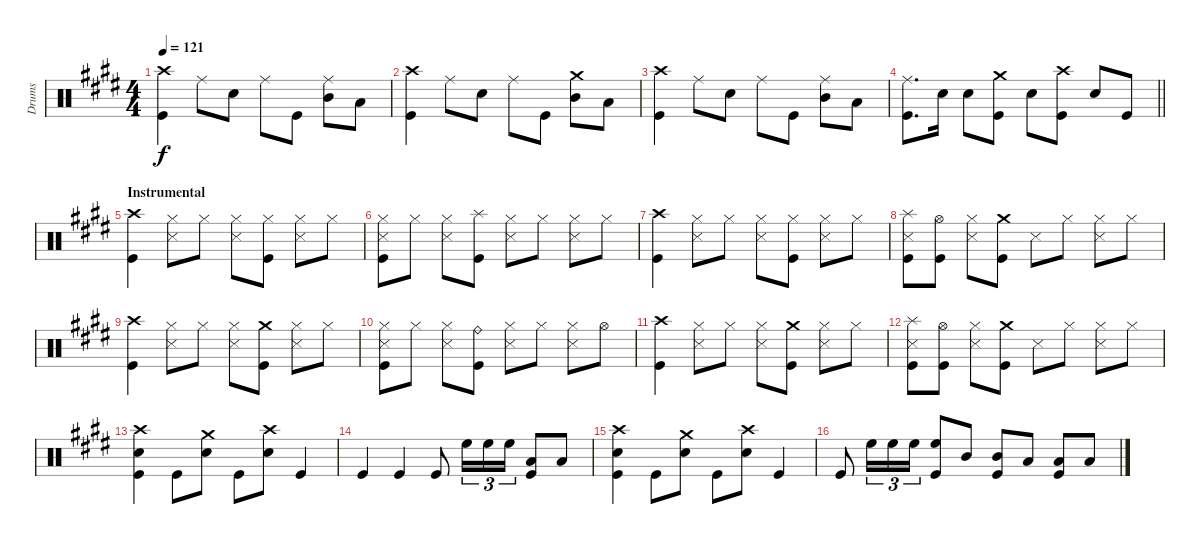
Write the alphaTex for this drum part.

\track ("Drums" "Drums") {instrument percussion}
\staff {score}
\articulation defaults
\ts (4 4)
\tempo 121
\clef neutral
\ks e
("Crash high (hit)" "Kick (hit)").4{dy f} "Ride (middle)".8 "Snare (hit) 2".8 "Ride (middle)".8 "Kick (hit)".8 ("Ride (middle)" "Mid Tom (hit)").8 "Low Floor Tom (hit)".8 |
("Crash high (hit)" "Kick (hit)").4 "Ride (middle)".8 "Snare (hit) 2".8 "Ride (middle)".8 "Kick (hit)".8 ("Crash medium (hit)" "Mid Tom (hit)").8 "Low Floor Tom (hit)".8 |
("Crash high (hit)" "Kick (hit)").4 "Ride (middle)".8 "Snare (hit) 2".8 "Ride (middle)".8 "Kick (hit)".8 ("Ride (middle)" "Mid Tom (hit)").8 "Low Floor Tom (hit)".8 |
\barLineRight lightlight
("Ride (middle)" "Kick (hit)").8{d} "Snare (hit) 2".16 "Snare (hit) 2".8 ("Crash medium (hit)" "Kick (hit)").8 "Snare (hit) 2".8 ("Crash high (hit)" "Kick (hit)").8 "Snare (hit) 2".8 "Kick (hit)".8 |
\section ("" "Instrumental")
("Crash high (hit)" "Kick (hit)").4 ("Hi-Hat (closed)" "Snare (side stick) 3").8 "Hi-Hat (closed)".8 ("Hi-Hat (closed)" "Snare (side stick) 3").8 ("Hi-Hat (closed)" "Kick (hit)").8 ("Hi-Hat (closed)" "Snare (side stick) 3").8 "Hi-Hat (closed)".8 |
("Hi-Hat (closed)" "Snare (side stick) 3" "Kick (hit)").8 "Hi-Hat (closed)".8 ("Hi-Hat (closed)" "Snare (side stick) 3").8 ("Splash (hit)" "Kick (hit)").8 ("Hi-Hat (closed)" "Snare (side stick) 3").8 "Hi-Hat (closed)".8 ("Hi-Hat (closed)" "Snare (side stick) 3").8 "Hi-Hat (closed)".8 |
("Crash high (hit)" "Kick (hit)").4 ("Hi-Hat (closed)" "Snare (side stick) 3").8 "Hi-Hat (closed)".8 ("Hi-Hat (closed)" "Snare (side stick) 3").8 ("Hi-Hat (closed)" "Kick (hit)").8 ("Hi-Hat (closed)" "Snare (side stick) 3").8 "Hi-Hat (closed)".8 |
("Splash (hit)" "Snare (side stick) 3" "Kick (hit)").8 ("Hi-Hat (open)" "Kick (hit)").8 ("Hi-Hat (closed)" "Snare (side stick) 3").8 ("Crash medium (hit)" "Kick (hit)").8 "Snare (side stick) 3".8 "Hi-Hat (closed)".8 ("Hi-Hat (closed)" "Snare (side stick) 3").8 "Hi-Hat (closed)".8 |
("Crash high (hit)" "Kick (hit)").4 ("Hi-Hat (closed)" "Snare (side stick) 3").8 "Hi-Hat (closed)".8 ("Hi-Hat (closed)" "Snare (side stick) 3").8 ("Crash medium (hit)" "Kick (hit)").8 ("Hi-Hat (closed)" "Snare (side stick) 3").8 "Hi-Hat (closed)".8 |
("Hi-Hat (closed)" "Snare (side stick) 3" "Kick (hit)").8 "Hi-Hat (closed)".8 ("Hi-Hat (closed)" "Snare (side stick) 3").8 ("Ride (bell)" "Kick (hit)").8 ("Hi-Hat (closed)" "Snare (side stick) 3").8 "Hi-Hat (closed)".8 ("Hi-Hat (closed)" "Snare (side stick) 3").8 "Hi-Hat (open)".8 |
("Crash high (hit)" "Kick (hit)").4 ("Hi-Hat (closed)" "Snare (side stick) 3").8 "Hi-Hat (closed)".8 ("Hi-Hat (closed)" "Snare (side stick) 3").8 ("Crash medium (hit)" "Kick (hit)").8 ("Hi-Hat (closed)" "Snare (side stick) 3").8 "Hi-Hat (closed)".8 |
("Splash (hit)" "Snare (side stick) 3" "Kick (hit)").8 ("Hi-Hat (open)" "Kick (hit)").8 ("Hi-Hat (closed)" "Snare (side stick) 3").8 ("Crash medium (hit)" "Kick (hit)").8 "Snare (side stick) 3".8 "Hi-Hat (closed)".8 ("Hi-Hat (closed)" "Snare (side stick) 3").8 "Hi-Hat (closed)".8 |
("Crash high (hit)" "Snare (hit) 2" "Kick (hit)").4 "Kick (hit)".8 ("Crash medium (hit)" "Snare (hit) 2").8 "Kick (hit)".8 ("Crash high (hit)" "Snare (hit) 2").8 "Kick (hit)".4 |
"Kick (hit)".4 "Kick (hit)".4 "Kick (hit)".8 "High Floor Tom (hit)".16{tu (3 2)} "High Floor Tom (hit)".16{tu (3 2)} "High Floor Tom (hit)".16{tu (3 2)} ("Low Tom (hit)" "Kick (hit)").8 "Low Floor Tom (hit)".8 |
("Crash high (hit)" "Snare (hit) 2" "Kick (hit)").4 "Kick (hit)".8 ("Crash medium (hit)" "Snare (hit) 2").8 "Kick (hit)".8 ("Crash high (hit)" "Snare (hit) 2").8 "Kick (hit)".4 |
"Kick (hit)".8 "High Floor Tom (hit)".16{tu (3 2)} "High Floor Tom (hit)".16{tu (3 2)} "High Floor Tom (hit)".16{tu (3 2)} ("High Floor Tom (hit)" "Kick (hit)").8 "Mid Tom (hit)".8 ("Mid Tom (hit)" "Kick (hit)").8 "Low Tom (hit)".8 ("Low Tom (hit)" "Kick (hit)").8 "Low Floor Tom (hit)".8
